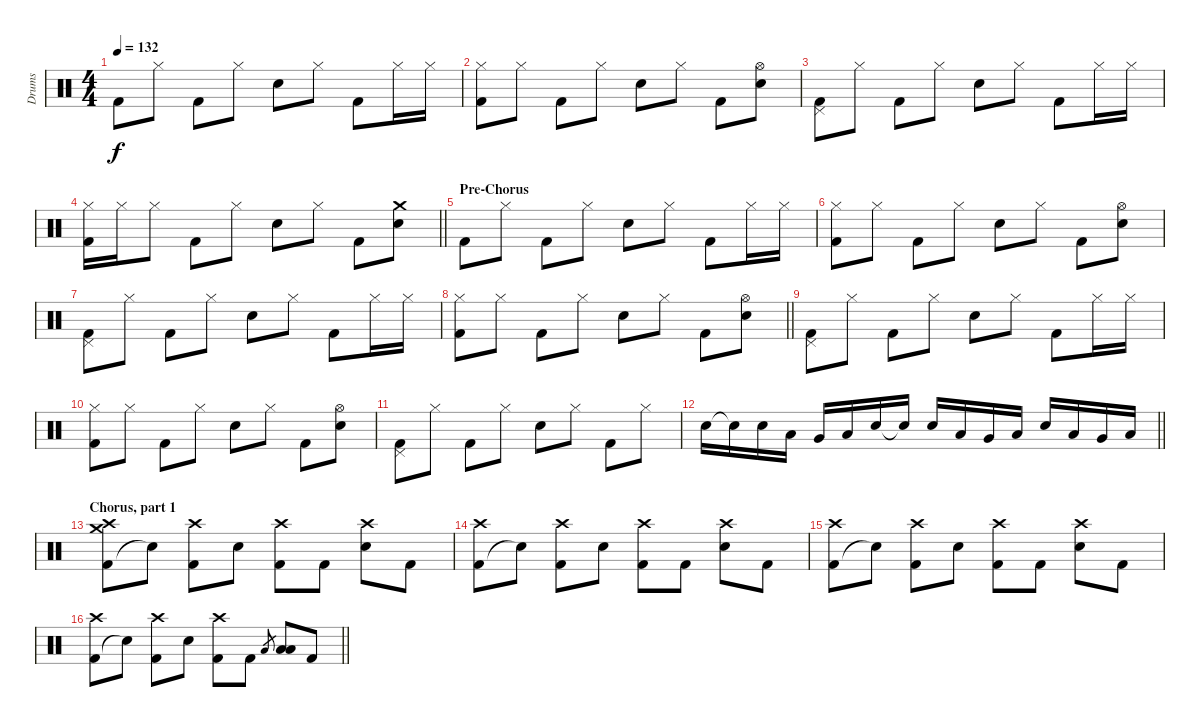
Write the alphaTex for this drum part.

\track ("Drums" "Drums") {instrument percussion}
\staff {score}
\articulation defaults
\ts (4 4)
\tempo 132
\clef neutral
\ks c "Kick (hit) 2".8{dy f} "Hi-Hat (closed)".8 "Kick (hit) 2".8 "Hi-Hat (closed)".8 "Electric Snare (hit)".8 "Hi-Hat (closed)".8 "Kick (hit) 2".8 "Hi-Hat (closed)".16 "Hi-Hat (closed)".16
|
("Kick (hit) 2" "Hi-Hat (closed)").8 "Hi-Hat (closed)".8 "Kick (hit) 2".8 "Hi-Hat (closed)".8 "Electric Snare (hit)".8 "Hi-Hat (closed)".8 "Kick (hit) 2".8 ("Electric Snare (hit)" "Hi-Hat (open)").8 |
("Kick (hit) 2" "Pedal Hi-Hat (hit)").8 "Hi-Hat (closed)".8 "Kick (hit) 2".8 "Hi-Hat (closed)".8 "Electric Snare (hit)".8 "Hi-Hat (closed)".8 "Kick (hit) 2".8 "Hi-Hat (closed)".16 "Hi-Hat (closed)".16 |
\barLineRight lightlight
("Kick (hit) 2" "Hi-Hat (closed)").16 "Hi-Hat (closed)".16 "Hi-Hat (closed)".8 "Kick (hit) 2".8 "Hi-Hat (closed)".8 "Electric Snare (hit)".8 "Hi-Hat (closed)".8 "Kick (hit) 2".8 ("Electric Snare (hit)" "Crash medium (hit)").8 |
\section ("" "Pre-Chorus")
"Kick (hit) 2".8 "Hi-Hat (closed)".8 "Kick (hit) 2".8 "Hi-Hat (closed)".8 "Electric Snare (hit)".8 "Hi-Hat (closed)".8 "Kick (hit) 2".8 "Hi-Hat (closed)".16 "Hi-Hat (closed)".16 |
("Kick (hit) 2" "Hi-Hat (closed)").8 "Hi-Hat (closed)".8 "Kick (hit) 2".8 "Hi-Hat (closed)".8 "Electric Snare (hit)".8 "Hi-Hat (closed)".8 "Kick (hit) 2".8 ("Electric Snare (hit)" "Hi-Hat (open)").8 |
("Kick (hit) 2" "Pedal Hi-Hat (hit)").8 "Hi-Hat (closed)".8 "Kick (hit) 2".8 "Hi-Hat (closed)".8 "Electric Snare (hit)".8 "Hi-Hat (closed)".8 "Kick (hit) 2".8 "Hi-Hat (closed)".16 "Hi-Hat (closed)".16 |
\barLineRight lightlight
("Kick (hit) 2" "Hi-Hat (closed)").8 "Hi-Hat (closed)".8 "Kick (hit) 2".8 "Hi-Hat (closed)".8 "Electric Snare (hit)".8 "Hi-Hat (closed)".8 "Kick (hit) 2".8 ("Electric Snare (hit)" "Hi-Hat (open)").8 |
("Kick (hit) 2" "Pedal Hi-Hat (hit)").8 "Hi-Hat (closed)".8 "Kick (hit) 2".8 "Hi-Hat (closed)".8 "Electric Snare (hit)".8 "Hi-Hat (closed)".8 "Kick (hit) 2".8 "Hi-Hat (closed)".16 "Hi-Hat (closed)".16 |
("Kick (hit) 2" "Hi-Hat (closed)").8 "Hi-Hat (closed)".8 "Kick (hit) 2".8 "Hi-Hat (closed)".8 "Electric Snare (hit)".8 "Hi-Hat (closed)".8 "Kick (hit) 2".8 ("Electric Snare (hit)" "Hi-Hat (open)").8 |
("Kick (hit) 2" "Pedal Hi-Hat (hit)").8 "Hi-Hat (closed)".8 "Kick (hit) 2".8 "Hi-Hat (closed)".8 "Electric Snare (hit)".8 "Hi-Hat (closed)".8 "Kick (hit) 2".8 "Hi-Hat (closed)".8 |
\barLineRight lightlight "Electric Snare (hit)".16 "Snare (hit)"{t}.16 "Electric Snare (hit)".16 "Low Tom (hit)".16 "Very Low Tom (hit)".16 "Low Floor Tom (hit)".16 "Electric Snare (hit)".16 "Snare (hit)"{t}.16 "Electric Snare (hit)".16 "Low Tom (hit)".16 "Very Low Tom (hit)".16 "Low Floor Tom (hit)".16 "Electric Snare (hit)".16 "Low Tom (hit)".16 "Very Low Tom (hit)".16 "Low Floor Tom (hit)".16
|
\section ("" "Chorus, part 1")
("Kick (hit) 2" "Crash medium (hit)" "Crash high (hit)").8 "Snare (hit)"{t}.8 ("Kick (hit) 2" "Crash high (hit)").8 "Electric Snare (hit)".8 ("Kick (hit) 2" "Crash high (hit)").8 "Kick (hit) 2".8 ("Electric Snare (hit)" "Crash high (hit)").8 "Kick (hit) 2".8 |
("Kick (hit) 2" "Crash high (hit)").8 "Snare (hit)"{t}.8 ("Kick (hit) 2" "Crash high (hit)").8 "Electric Snare (hit)".8 ("Kick (hit) 2" "Crash high (hit)").8 "Kick (hit) 2".8 ("Electric Snare (hit)" "Crash high (hit)").8 "Kick (hit) 2".8 |
("Kick (hit) 2" "Crash high (hit)").8 "Snare (hit)"{t}.8 ("Kick (hit) 2" "Crash high (hit)").8 "Electric Snare (hit)".8 ("Kick (hit) 2" "Crash high (hit)").8 "Kick (hit) 2".8 ("Electric Snare (hit)" "Crash high (hit)").8 "Kick (hit) 2".8 |
\barLineRight lightlight
("Kick (hit) 2" "Crash high (hit)").8 "Snare (hit)"{t}.8 ("Kick (hit) 2" "Crash high (hit)").8 "Electric Snare (hit)".8 ("Kick (hit) 2" "Crash high (hit)").8 "Kick (hit) 2".8 "Low Tom (hit)".8{gr} ("Low Tom (hit)" "Low Floor Tom (hit)").8 "Kick (hit) 2".8
